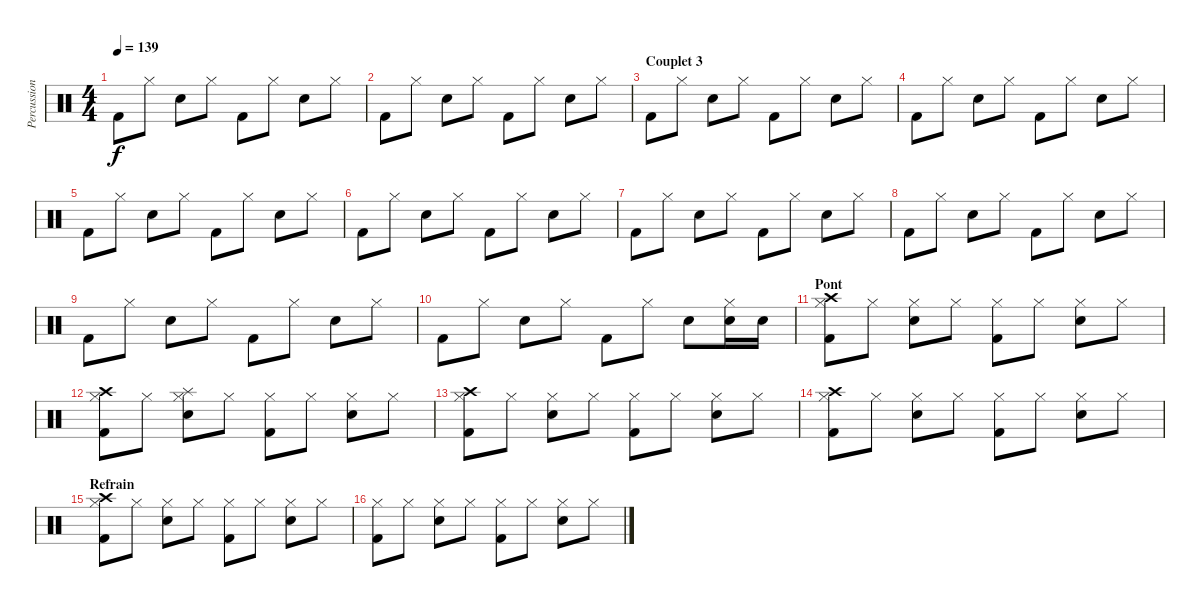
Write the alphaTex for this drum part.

\track ("Percussions" "Percussion") {instrument percussion}
\staff {score}
\articulation defaults
\ts (4 4)
\tempo 139
\clef neutral
\ks c "Kick (hit) 2".8{dy f} "Hi-Hat (closed)".8 "Snare (hit) 2".8 "Hi-Hat (closed)".8 "Kick (hit) 2".8 "Hi-Hat (closed)".8 "Snare (hit) 2".8 "Hi-Hat (closed)".8
|
"Kick (hit) 2".8 "Hi-Hat (closed)".8 "Snare (hit) 2".8 "Hi-Hat (closed)".8 "Kick (hit) 2".8 "Hi-Hat (closed)".8 "Snare (hit) 2".8 "Hi-Hat (closed)".8 |
\section ("" "Couplet 3")
"Kick (hit) 2".8 "Hi-Hat (closed)".8 "Snare (hit) 2".8 "Hi-Hat (closed)".8 "Kick (hit) 2".8 "Hi-Hat (closed)".8 "Snare (hit) 2".8 "Hi-Hat (closed)".8 |
"Kick (hit) 2".8 "Hi-Hat (closed)".8 "Snare (hit) 2".8 "Hi-Hat (closed)".8 "Kick (hit) 2".8 "Hi-Hat (closed)".8 "Snare (hit) 2".8 "Hi-Hat (closed)".8 |
"Kick (hit) 2".8 "Hi-Hat (closed)".8 "Snare (hit) 2".8 "Hi-Hat (closed)".8 "Kick (hit) 2".8 "Hi-Hat (closed)".8 "Snare (hit) 2".8 "Hi-Hat (closed)".8 |
"Kick (hit) 2".8 "Hi-Hat (closed)".8 "Snare (hit) 2".8 "Hi-Hat (closed)".8 "Kick (hit) 2".8 "Hi-Hat (closed)".8 "Snare (hit) 2".8 "Hi-Hat (closed)".8 |
"Kick (hit) 2".8 "Hi-Hat (closed)".8 "Snare (hit) 2".8 "Hi-Hat (closed)".8 "Kick (hit) 2".8 "Hi-Hat (closed)".8 "Snare (hit) 2".8 "Hi-Hat (closed)".8 |
"Kick (hit) 2".8 "Hi-Hat (closed)".8 "Snare (hit) 2".8 "Hi-Hat (closed)".8 "Kick (hit) 2".8 "Hi-Hat (closed)".8 "Snare (hit) 2".8 "Hi-Hat (closed)".8 |
"Kick (hit) 2".8 "Hi-Hat (closed)".8 "Snare (hit) 2".8 "Hi-Hat (closed)".8 "Kick (hit) 2".8 "Hi-Hat (closed)".8 "Snare (hit) 2".8 "Hi-Hat (closed)".8 |
"Kick (hit) 2".8 "Hi-Hat (closed)".8 "Snare (hit) 2".8 "Hi-Hat (closed)".8 "Kick (hit) 2".8 "Hi-Hat (closed)".8 "Snare (hit) 2".8 ("Hi-Hat (closed)" "Snare (hit) 2").16 "Snare (hit) 2".16 |
\section ("" "Pont")
("Hi-Hat (closed)" "Crash high (hit)" "Kick (hit) 2").8 "Hi-Hat (closed)".8 ("Hi-Hat (closed)" "Snare (hit) 2").8 "Hi-Hat (closed)".8 ("Hi-Hat (closed)" "Kick (hit) 2").8 "Hi-Hat (closed)".8 ("Hi-Hat (closed)" "Snare (hit) 2").8 "Hi-Hat (closed)".8 |
("Hi-Hat (closed)" "Crash high (hit)" "Kick (hit) 2").8 "Hi-Hat (closed)".8 ("Hi-Hat (closed)" "Splash (hit)" "Snare (hit) 2").8 "Hi-Hat (closed)".8 ("Hi-Hat (closed)" "Kick (hit) 2").8 "Hi-Hat (closed)".8 ("Hi-Hat (closed)" "Snare (hit) 2").8 "Hi-Hat (closed)".8 |
("Hi-Hat (closed)" "Crash high (hit)" "Kick (hit) 2").8 "Hi-Hat (closed)".8 ("Hi-Hat (closed)" "Snare (hit) 2").8 "Hi-Hat (closed)".8 ("Hi-Hat (closed)" "Kick (hit) 2").8 "Hi-Hat (closed)".8 ("Hi-Hat (closed)" "Snare (hit) 2").8 "Hi-Hat (closed)".8 |
("Hi-Hat (closed)" "Crash high (hit)" "Kick (hit) 2").8 "Hi-Hat (closed)".8 ("Hi-Hat (closed)" "Snare (hit) 2").8 "Hi-Hat (closed)".8 ("Hi-Hat (closed)" "Kick (hit) 2").8 "Hi-Hat (closed)".8 ("Hi-Hat (closed)" "Snare (hit) 2").8 "Hi-Hat (closed)".8 |
\section ("" "Refrain")
("Hi-Hat (closed)" "Crash high (hit)" "Kick (hit) 2").8 "Hi-Hat (closed)".8 ("Hi-Hat (closed)" "Snare (hit) 2").8 "Hi-Hat (closed)".8 ("Hi-Hat (closed)" "Kick (hit) 2").8 "Hi-Hat (closed)".8 ("Hi-Hat (closed)" "Snare (hit) 2").8 "Hi-Hat (closed)".8 |
("Hi-Hat (closed)" "Kick (hit) 2").8 "Hi-Hat (closed)".8 ("Hi-Hat (closed)" "Snare (hit) 2").8 "Hi-Hat (closed)".8 ("Hi-Hat (closed)" "Kick (hit) 2").8 "Hi-Hat (closed)".8 ("Hi-Hat (closed)" "Snare (hit) 2").8 "Hi-Hat (closed)".8
